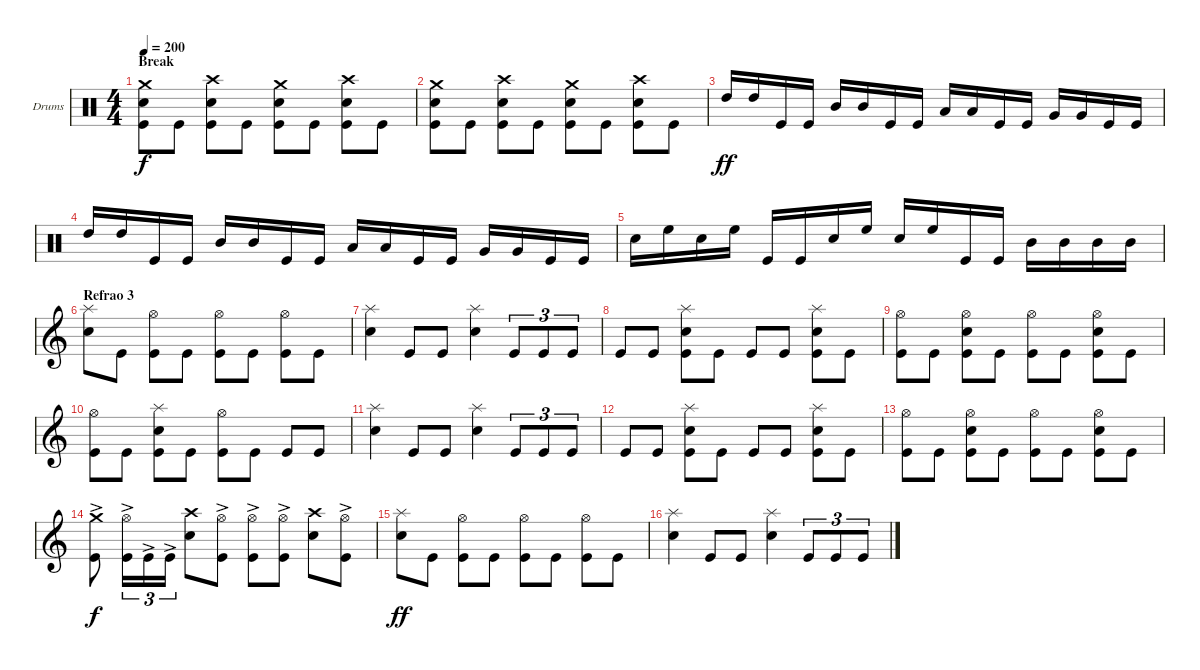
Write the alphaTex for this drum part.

\defaultSystemsLayout 4
\bracketExtendMode groupsimilarinstruments
\firstSystemTrackNameOrientation horizontal
\otherSystemsTrackNameOrientation horizontal
\track ("Drums" "Drums") {instrument percussion}
\staff {score}
\articulation defaults
\ts (4 4)
\section ("" "Break")
\tempo 200
\clef neutral
\ks c
("Kick (hit)" "Snare (hit) 2" "Crash medium (hit)").8{dy f} "Kick (hit)".8 ("Kick (hit)" "Snare (hit) 2" "Crash high (hit)").8 "Kick (hit)".8 ("Kick (hit)" "Snare (hit) 2" "Crash medium (hit)").8 "Kick (hit)".8 ("Kick (hit)" "Snare (hit) 2" "Crash high (hit)").8 "Kick (hit)".8 |
("Kick (hit)" "Snare (hit) 2" "Crash medium (hit)").8 "Kick (hit)".8 ("Kick (hit)" "Snare (hit) 2" "Crash high (hit)").8 "Kick (hit)".8 ("Kick (hit)" "Snare (hit) 2" "Crash medium (hit)").8 "Kick (hit)".8 ("Kick (hit)" "Snare (hit) 2" "Crash high (hit)").8 "Kick (hit)".8 |
"High Tom (hit)".16{dy ff} "High Tom (hit)".16 "Kick (hit)".16 "Kick (hit)".16 "Mid Tom (hit)".16 "Mid Tom (hit)".16 "Kick (hit)".16 "Kick (hit)".16 "Low Tom (hit)".16 "Low Tom (hit)".16 "Kick (hit)".16 "Kick (hit)".16 "Very Low Tom (hit)".16 "Very Low Tom (hit)".16 "Kick (hit)".16 "Kick (hit)".16 |
"High Tom (hit)".16 "High Tom (hit)".16 "Kick (hit)".16 "Kick (hit)".16 "Mid Tom (hit)".16 "Mid Tom (hit)".16 "Kick (hit)".16 "Kick (hit)".16 "Low Tom (hit)".16 "Low Tom (hit)".16 "Kick (hit)".16 "Kick (hit)".16 "Very Low Tom (hit)".16 "Very Low Tom (hit)".16 "Kick (hit)".16 "Kick (hit)".16 |
"Snare (hit) 2".16 "High Floor Tom (hit)".16 "Snare (hit) 2".16 "High Floor Tom (hit)".16 "Kick (hit)".16 "Kick (hit)".16 "Snare (hit) 2".16 "High Floor Tom (hit)".16 "Snare (hit) 2".16 "High Floor Tom (hit)".16 "Kick (hit)".16 "Kick (hit)".16 "Mid Tom (hit)".16 "Mid Tom (hit)".16 "Mid Tom (hit)".16 "Mid Tom (hit)".16 |
\section ("" "Refrao 3")
\clef g2
("Snare (hit) 2" "Splash (hit)").8 "Kick (hit)".8 ("Kick (hit)" "Hi-Hat (open)").8 "Kick (hit)".8 ("Kick (hit)" "Hi-Hat (open)").8 "Kick (hit)".8 ("Kick (hit)" "Hi-Hat (open)").8 "Kick (hit)".8 |
("Snare (hit) 2" "Splash (hit)").4 "Kick (hit)".8 "Kick (hit)".8 ("Snare (hit) 2" "Splash (hit)").4 "Kick (hit)".8{tu (3 2)} "Kick (hit)".8{tu (3 2)} "Kick (hit)".8{tu (3 2)} |
"Kick (hit)".8 "Kick (hit)".8 ("Snare (hit) 2" "Splash (hit)" "Kick (hit)").8 "Kick (hit)".8 "Kick (hit)".8 "Kick (hit)".8 ("Kick (hit)" "Snare (hit) 2" "Splash (hit)").8 "Kick (hit)".8 |
("Kick (hit)" "Hi-Hat (open)").8 "Kick (hit)".8 ("Kick (hit)" "Hi-Hat (open)" "Snare (hit) 2").8 "Kick (hit)".8 ("Kick (hit)" "Hi-Hat (open)").8 "Kick (hit)".8 ("Kick (hit)" "Hi-Hat (open)" "Snare (hit) 2").8 "Kick (hit)".8 |
("Kick (hit)" "Hi-Hat (open)").8 "Kick (hit)".8 ("Kick (hit)" "Snare (hit) 2" "Splash (hit)").8 "Kick (hit)".8 ("Kick (hit)" "Hi-Hat (open)").8 "Kick (hit)".8 "Kick (hit)".8 "Kick (hit)".8 |
("Snare (hit) 2" "Splash (hit)").4 "Kick (hit)".8 "Kick (hit)".8 ("Snare (hit) 2" "Splash (hit)").4 "Kick (hit)".8{tu (3 2)} "Kick (hit)".8{tu (3 2)} "Kick (hit)".8{tu (3 2)} |
"Kick (hit)".8 "Kick (hit)".8 ("Snare (hit) 2" "Splash (hit)" "Kick (hit)").8 "Kick (hit)".8 "Kick (hit)".8 "Kick (hit)".8 ("Kick (hit)" "Snare (hit) 2" "Splash (hit)").8 "Kick (hit)".8 |
("Kick (hit)" "Hi-Hat (open)").8 "Kick (hit)".8 ("Kick (hit)" "Hi-Hat (open)" "Snare (hit) 2").8 "Kick (hit)".8 ("Kick (hit)" "Hi-Hat (open)").8 "Kick (hit)".8 ("Kick (hit)" "Hi-Hat (open)" "Snare (hit) 2").8 "Kick (hit)".8 |
("Crash medium (hit)" "Kick (hit)"{ac}).8{dy f} ("Hi-Hat (open)" "Kick (hit)"{ac}).16{tu (3 2)} "Kick (hit)"{ac}.16{tu (3 2)} "Kick (hit)"{ac}.16{tu (3 2)} ("Crash high (hit)" "Snare (hit) 2").8 ("Hi-Hat (open)" "Kick (hit)"{ac}).8 ("Hi-Hat (open)" "Kick (hit)"{ac}).8 ("Hi-Hat (open)" "Kick (hit)"{ac}).8 ("Crash high (hit)" "Snare (hit) 2").8 ("Hi-Hat (open)" "Kick (hit)"{ac}).8 |
("Snare (hit) 2" "Splash (hit)").8{dy ff} "Kick (hit)".8 ("Kick (hit)" "Hi-Hat (open)").8 "Kick (hit)".8 ("Kick (hit)" "Hi-Hat (open)").8 "Kick (hit)".8 ("Kick (hit)" "Hi-Hat (open)").8 "Kick (hit)".8 |
("Snare (hit) 2" "Splash (hit)").4 "Kick (hit)".8 "Kick (hit)".8 ("Snare (hit) 2" "Splash (hit)").4 "Kick (hit)".8{tu (3 2)} "Kick (hit)".8{tu (3 2)} "Kick (hit)".8{tu (3 2)}
